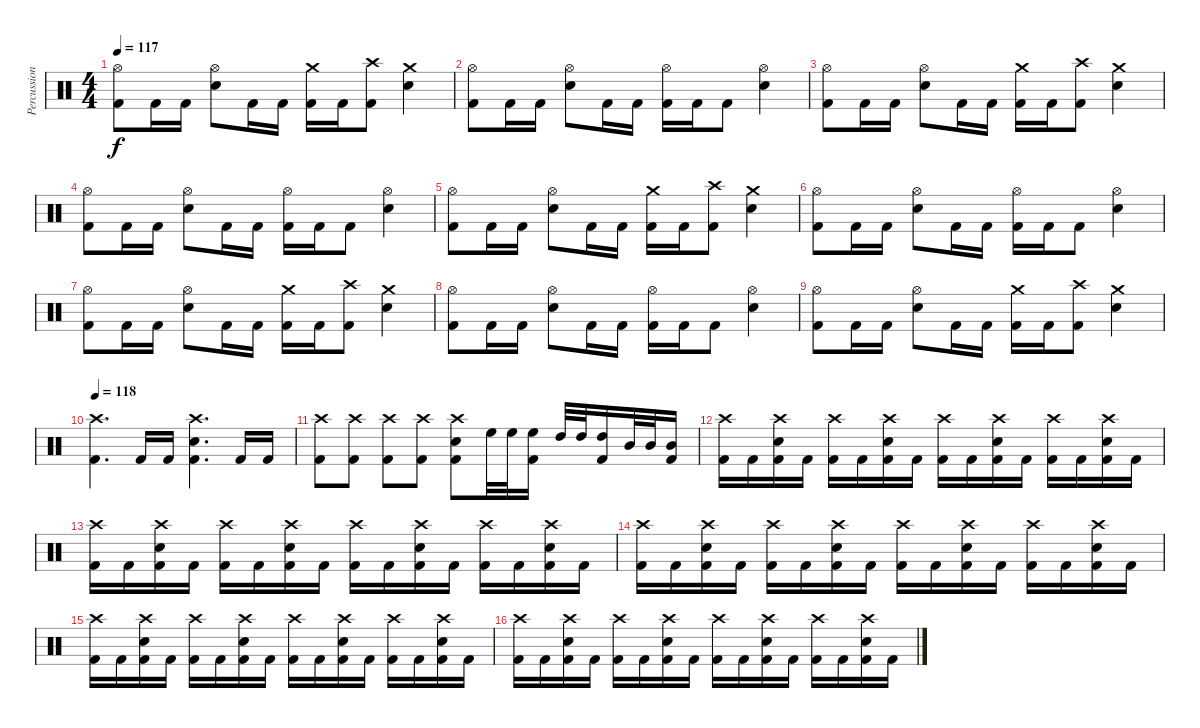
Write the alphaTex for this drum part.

\track ("Percussions" "Percussion") {instrument percussion}
\staff {score}
\articulation defaults
\ts (4 4)
\tempo 117
\clef neutral
\ks c
("Hi-Hat (open)" "Kick (hit) 2").8{dy f} "Kick (hit) 2".16 "Kick (hit) 2".16 ("Hi-Hat (open)" "Snare (hit) 2").8 "Kick (hit) 2".16 "Kick (hit) 2".16 ("Crash medium (hit)" "Kick (hit) 2").16 "Kick (hit) 2".16 ("Crash high (hit)" "Kick (hit) 2").8 ("Crash medium (hit)" "Snare (hit) 2").4 |
("Hi-Hat (open)" "Kick (hit) 2").8 "Kick (hit) 2".16 "Kick (hit) 2".16 ("Hi-Hat (open)" "Snare (hit) 2").8 "Kick (hit) 2".16 "Kick (hit) 2".16 ("Hi-Hat (open)" "Kick (hit) 2").16 "Kick (hit) 2".16 "Kick (hit) 2".8 ("Hi-Hat (open)" "Snare (hit) 2").4 |
("Hi-Hat (open)" "Kick (hit) 2").8 "Kick (hit) 2".16 "Kick (hit) 2".16 ("Hi-Hat (open)" "Snare (hit) 2").8 "Kick (hit) 2".16 "Kick (hit) 2".16 ("Crash medium (hit)" "Kick (hit) 2").16 "Kick (hit) 2".16 ("Crash high (hit)" "Kick (hit) 2").8 ("Crash medium (hit)" "Snare (hit) 2").4 |
("Hi-Hat (open)" "Kick (hit) 2").8 "Kick (hit) 2".16 "Kick (hit) 2".16 ("Hi-Hat (open)" "Snare (hit) 2").8 "Kick (hit) 2".16 "Kick (hit) 2".16 ("Hi-Hat (open)" "Kick (hit) 2").16 "Kick (hit) 2".16 "Kick (hit) 2".8 ("Hi-Hat (open)" "Snare (hit) 2").4 |
("Hi-Hat (open)" "Kick (hit) 2").8 "Kick (hit) 2".16 "Kick (hit) 2".16 ("Hi-Hat (open)" "Snare (hit) 2").8 "Kick (hit) 2".16 "Kick (hit) 2".16 ("Crash medium (hit)" "Kick (hit) 2").16 "Kick (hit) 2".16 ("Crash high (hit)" "Kick (hit) 2").8 ("Crash medium (hit)" "Snare (hit) 2").4 |
("Hi-Hat (open)" "Kick (hit) 2").8 "Kick (hit) 2".16 "Kick (hit) 2".16 ("Hi-Hat (open)" "Snare (hit) 2").8 "Kick (hit) 2".16 "Kick (hit) 2".16 ("Hi-Hat (open)" "Kick (hit) 2").16 "Kick (hit) 2".16 "Kick (hit) 2".8 ("Hi-Hat (open)" "Snare (hit) 2").4 |
("Hi-Hat (open)" "Kick (hit) 2").8 "Kick (hit) 2".16 "Kick (hit) 2".16 ("Hi-Hat (open)" "Snare (hit) 2").8 "Kick (hit) 2".16 "Kick (hit) 2".16 ("Crash medium (hit)" "Kick (hit) 2").16 "Kick (hit) 2".16 ("Crash high (hit)" "Kick (hit) 2").8 ("Crash medium (hit)" "Snare (hit) 2").4 |
("Hi-Hat (open)" "Kick (hit) 2").8 "Kick (hit) 2".16 "Kick (hit) 2".16 ("Hi-Hat (open)" "Snare (hit) 2").8 "Kick (hit) 2".16 "Kick (hit) 2".16 ("Hi-Hat (open)" "Kick (hit) 2").16 "Kick (hit) 2".16 "Kick (hit) 2".8 ("Hi-Hat (open)" "Snare (hit) 2").4 |
("Hi-Hat (open)" "Kick (hit) 2").8 "Kick (hit) 2".16 "Kick (hit) 2".16 ("Hi-Hat (open)" "Snare (hit) 2").8 "Kick (hit) 2".16 "Kick (hit) 2".16 ("Crash medium (hit)" "Kick (hit) 2").16 "Kick (hit) 2".16 ("Crash high (hit)" "Kick (hit) 2").8 ("Crash medium (hit)" "Snare (hit) 2").4 |
\tempo 118
("Crash high (hit)" "Kick (hit) 2").4{d} "Kick (hit) 2".16 "Kick (hit) 2".16 ("Crash high (hit)" "Snare (hit) 2" "Kick (hit) 2").4{d} "Kick (hit) 2".16 "Kick (hit) 2".16 |
("Crash high (hit)" "Kick (hit) 2").8 ("Crash high (hit)" "Kick (hit) 2").8 ("Crash high (hit)" "Kick (hit) 2").8 ("Crash high (hit)" "Kick (hit) 2").8 ("Crash high (hit)" "Snare (hit) 2" "Kick (hit) 2").8 "High Floor Tom (hit)".32 "High Floor Tom (hit)".32 ("High Floor Tom (hit)" "Kick (hit) 2").16 "High Tom (hit)".32 "High Tom (hit)".32 ("High Tom (hit)" "Kick (hit) 2").16 "Mid Tom (hit)".32 "Mid Tom (hit)".32 ("Mid Tom (hit)" "Kick (hit) 2").16 |
("Crash high (hit)" "Kick (hit) 2").16 "Kick (hit) 2".16 ("Crash high (hit)" "Snare (hit) 2" "Kick (hit) 2").16 "Kick (hit) 2".16 ("Crash high (hit)" "Kick (hit) 2").16 "Kick (hit) 2".16 ("Crash high (hit)" "Snare (hit) 2" "Kick (hit) 2").16 "Kick (hit) 2".16 ("Crash high (hit)" "Kick (hit) 2").16 "Kick (hit) 2".16 ("Crash high (hit)" "Snare (hit) 2" "Kick (hit) 2").16 "Kick (hit) 2".16 ("Crash high (hit)" "Kick (hit) 2").16 "Kick (hit) 2".16 ("Crash high (hit)" "Snare (hit) 2" "Kick (hit) 2").16 "Kick (hit) 2".16 |
("Crash high (hit)" "Kick (hit) 2").16 "Kick (hit) 2".16 ("Crash high (hit)" "Snare (hit) 2" "Kick (hit) 2").16 "Kick (hit) 2".16 ("Crash high (hit)" "Kick (hit) 2").16 "Kick (hit) 2".16 ("Crash high (hit)" "Snare (hit) 2" "Kick (hit) 2").16 "Kick (hit) 2".16 ("Crash high (hit)" "Kick (hit) 2").16 "Kick (hit) 2".16 ("Crash high (hit)" "Snare (hit) 2" "Kick (hit) 2").16 "Kick (hit) 2".16 ("Crash high (hit)" "Kick (hit) 2").16 "Kick (hit) 2".16 ("Crash high (hit)" "Snare (hit) 2" "Kick (hit) 2").16 "Kick (hit) 2".16 |
("Crash high (hit)" "Kick (hit) 2").16 "Kick (hit) 2".16 ("Crash high (hit)" "Snare (hit) 2" "Kick (hit) 2").16 "Kick (hit) 2".16 ("Crash high (hit)" "Kick (hit) 2").16 "Kick (hit) 2".16 ("Crash high (hit)" "Snare (hit) 2" "Kick (hit) 2").16 "Kick (hit) 2".16 ("Crash high (hit)" "Kick (hit) 2").16 "Kick (hit) 2".16 ("Crash high (hit)" "Snare (hit) 2" "Kick (hit) 2").16 "Kick (hit) 2".16 ("Crash high (hit)" "Kick (hit) 2").16 "Kick (hit) 2".16 ("Crash high (hit)" "Snare (hit) 2" "Kick (hit) 2").16 "Kick (hit) 2".16 |
("Crash high (hit)" "Kick (hit) 2").16 "Kick (hit) 2".16 ("Crash high (hit)" "Snare (hit) 2" "Kick (hit) 2").16 "Kick (hit) 2".16 ("Crash high (hit)" "Kick (hit) 2").16 "Kick (hit) 2".16 ("Crash high (hit)" "Snare (hit) 2" "Kick (hit) 2").16 "Kick (hit) 2".16 ("Crash high (hit)" "Kick (hit) 2").16 "Kick (hit) 2".16 ("Crash high (hit)" "Snare (hit) 2" "Kick (hit) 2").16 "Kick (hit) 2".16 ("Crash high (hit)" "Kick (hit) 2").16 "Kick (hit) 2".16 ("Crash high (hit)" "Snare (hit) 2" "Kick (hit) 2").16 "Kick (hit) 2".16 |
("Crash high (hit)" "Kick (hit) 2").16 "Kick (hit) 2".16 ("Crash high (hit)" "Snare (hit) 2" "Kick (hit) 2").16 "Kick (hit) 2".16 ("Crash high (hit)" "Kick (hit) 2").16 "Kick (hit) 2".16 ("Crash high (hit)" "Snare (hit) 2" "Kick (hit) 2").16 "Kick (hit) 2".16 ("Crash high (hit)" "Kick (hit) 2").16 "Kick (hit) 2".16 ("Crash high (hit)" "Snare (hit) 2" "Kick (hit) 2").16 "Kick (hit) 2".16 ("Crash high (hit)" "Kick (hit) 2").16 "Kick (hit) 2".16 ("Crash high (hit)" "Snare (hit) 2" "Kick (hit) 2").16 "Kick (hit) 2".16
